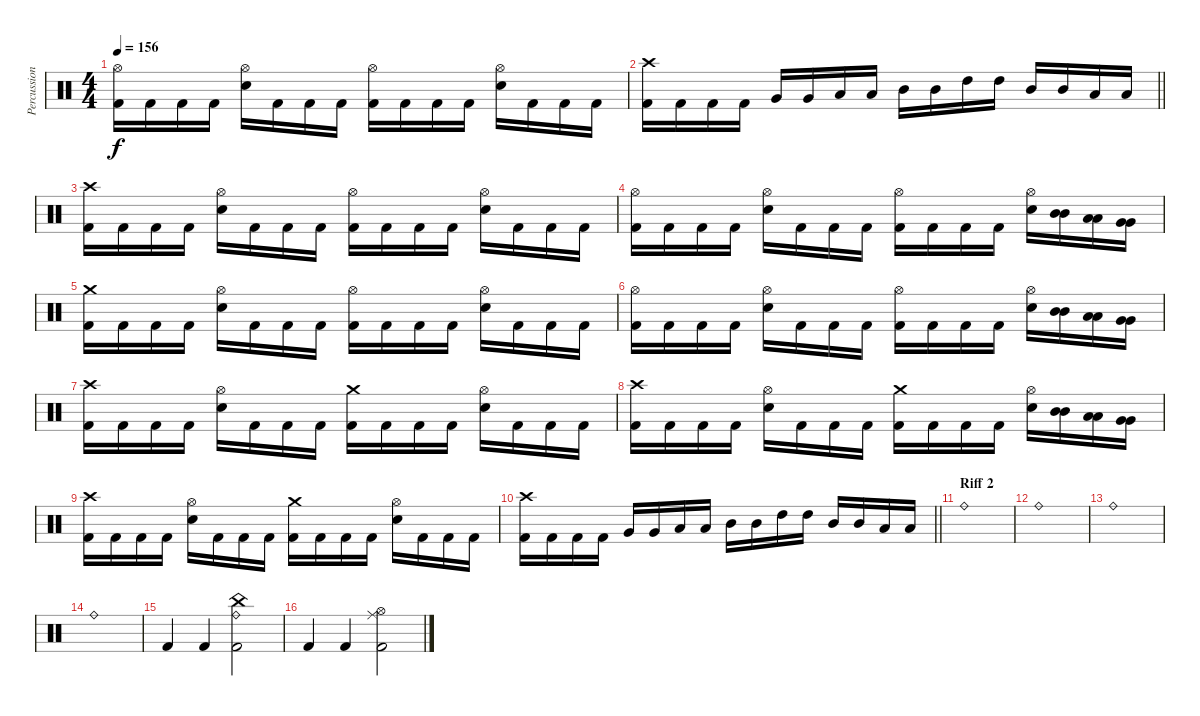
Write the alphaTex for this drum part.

\track ("Percussion" "Percussion") {instrument percussion}
\staff {score}
\articulation defaults
\ts (4 4)
\tempo 156
\clef neutral
\ks c
("Hi-Hat (open)" "Kick (hit) 2").16{dy f} "Kick (hit) 2".16 "Kick (hit) 2".16 "Kick (hit) 2".16 ("Hi-Hat (open)" "Snare (hit) 2").16 "Kick (hit) 2".16 "Kick (hit) 2".16 "Kick (hit) 2".16 ("Hi-Hat (open)" "Kick (hit) 2").16 "Kick (hit) 2".16 "Kick (hit) 2".16 "Kick (hit) 2".16 ("Hi-Hat (open)" "Snare (hit) 2").16 "Kick (hit) 2".16 "Kick (hit) 2".16 "Kick (hit) 2".16 |
\barLineRight lightlight
("Crash high (hit)" "Kick (hit) 2").16 "Kick (hit) 2".16 "Kick (hit) 2".16 "Kick (hit) 2".16 "Very Low Tom (hit)".16 "Very Low Tom (hit)".16 "Low Tom (hit)".16 "Low Tom (hit)".16 "Mid Tom (hit)".16 "Mid Tom (hit)".16 "High Tom (hit)".16 "High Tom (hit)".16 "Mid Tom (hit)".16 "Mid Tom (hit)".16 "Low Tom (hit)".16 "Low Tom (hit)".16 |
("Crash high (hit)" "Kick (hit) 2").16 "Kick (hit) 2".16 "Kick (hit) 2".16 "Kick (hit) 2".16 ("Hi-Hat (open)" "Snare (hit) 2").16 "Kick (hit) 2".16 "Kick (hit) 2".16 "Kick (hit) 2".16 ("Hi-Hat (open)" "Kick (hit) 2").16 "Kick (hit) 2".16 "Kick (hit) 2".16 "Kick (hit) 2".16 ("Hi-Hat (open)" "Snare (hit) 2").16 "Kick (hit) 2".16 "Kick (hit) 2".16 "Kick (hit) 2".16 |
("Hi-Hat (open)" "Kick (hit) 2").16 "Kick (hit) 2".16 "Kick (hit) 2".16 "Kick (hit) 2".16 ("Hi-Hat (open)" "Snare (hit) 2").16 "Kick (hit) 2".16 "Kick (hit) 2".16 "Kick (hit) 2".16 ("Hi-Hat (open)" "Kick (hit) 2").16 "Kick (hit) 2".16 "Kick (hit) 2".16 "Kick (hit) 2".16 ("Hi-Hat (open)" "Snare (hit) 2").16 ("Mid Tom (hit)" "Mid Tom (hit)").16 ("Low Tom (hit)" "Low Tom (hit)").16 ("Very Low Tom (hit)" "Very Low Tom (hit)").16 |
("Crash medium (hit)" "Kick (hit) 2").16 "Kick (hit) 2".16 "Kick (hit) 2".16 "Kick (hit) 2".16 ("Hi-Hat (open)" "Snare (hit) 2").16 "Kick (hit) 2".16 "Kick (hit) 2".16 "Kick (hit) 2".16 ("Hi-Hat (open)" "Kick (hit) 2").16 "Kick (hit) 2".16 "Kick (hit) 2".16 "Kick (hit) 2".16 ("Hi-Hat (open)" "Snare (hit) 2").16 "Kick (hit) 2".16 "Kick (hit) 2".16 "Kick (hit) 2".16 |
("Hi-Hat (open)" "Kick (hit) 2").16 "Kick (hit) 2".16 "Kick (hit) 2".16 "Kick (hit) 2".16 ("Hi-Hat (open)" "Snare (hit) 2").16 "Kick (hit) 2".16 "Kick (hit) 2".16 "Kick (hit) 2".16 ("Hi-Hat (open)" "Kick (hit) 2").16 "Kick (hit) 2".16 "Kick (hit) 2".16 "Kick (hit) 2".16 ("Hi-Hat (open)" "Snare (hit) 2").16 ("Mid Tom (hit)" "Mid Tom (hit)").16 ("Low Tom (hit)" "Low Tom (hit)").16 ("Very Low Tom (hit)" "Very Low Tom (hit)").16 |
("Crash high (hit)" "Kick (hit) 2").16 "Kick (hit) 2".16 "Kick (hit) 2".16 "Kick (hit) 2".16 ("Hi-Hat (open)" "Snare (hit) 2").16 "Kick (hit) 2".16 "Kick (hit) 2".16 "Kick (hit) 2".16 ("Crash medium (hit)" "Kick (hit) 2").16 "Kick (hit) 2".16 "Kick (hit) 2".16 "Kick (hit) 2".16 ("Hi-Hat (open)" "Snare (hit) 2").16 "Kick (hit) 2".16 "Kick (hit) 2".16 "Kick (hit) 2".16 |
("Crash high (hit)" "Kick (hit) 2").16 "Kick (hit) 2".16 "Kick (hit) 2".16 "Kick (hit) 2".16 ("Hi-Hat (open)" "Snare (hit) 2").16 "Kick (hit) 2".16 "Kick (hit) 2".16 "Kick (hit) 2".16 ("Crash medium (hit)" "Kick (hit) 2").16 "Kick (hit) 2".16 "Kick (hit) 2".16 "Kick (hit) 2".16 ("Hi-Hat (open)" "Snare (hit) 2").16 ("Mid Tom (hit)" "Mid Tom (hit)").16 ("Low Tom (hit)" "Low Tom (hit)").16 ("Very Low Tom (hit)" "Very Low Tom (hit)").16 |
("Crash high (hit)" "Kick (hit) 2").16 "Kick (hit) 2".16 "Kick (hit) 2".16 "Kick (hit) 2".16 ("Hi-Hat (open)" "Snare (hit) 2").16 "Kick (hit) 2".16 "Kick (hit) 2".16 "Kick (hit) 2".16 ("Crash medium (hit)" "Kick (hit) 2").16 "Kick (hit) 2".16 "Kick (hit) 2".16 "Kick (hit) 2".16 ("Hi-Hat (open)" "Snare (hit) 2").16 "Kick (hit) 2".16 "Kick (hit) 2".16 "Kick (hit) 2".16 |
\barLineRight lightlight
("Crash high (hit)" "Kick (hit) 2").16 "Kick (hit) 2".16 "Kick (hit) 2".16 "Kick (hit) 2".16 "Very Low Tom (hit)".16 "Very Low Tom (hit)".16 "Low Tom (hit)".16 "Low Tom (hit)".16 "Mid Tom (hit)".16 "Mid Tom (hit)".16 "High Tom (hit)".16 "High Tom (hit)".16 "Mid Tom (hit)".16 "Mid Tom (hit)".16 "Low Tom (hit)".16 "Low Tom (hit)".16 |
\section ("" "Riff 2")
"Ride (bell)".1 |
"Ride (bell)".1 |
"Ride (bell)".1 |
"Ride (bell)".1 |
"Kick (hit) 2".4 "Kick (hit) 2".4 ("China (hit)" "Ride (bell)" "Kick (hit) 2").2 |
"Kick (hit) 2".4 "Kick (hit) 2".4 ("Ride (middle)" "Hi-Hat (open)" "Kick (hit) 2").2
